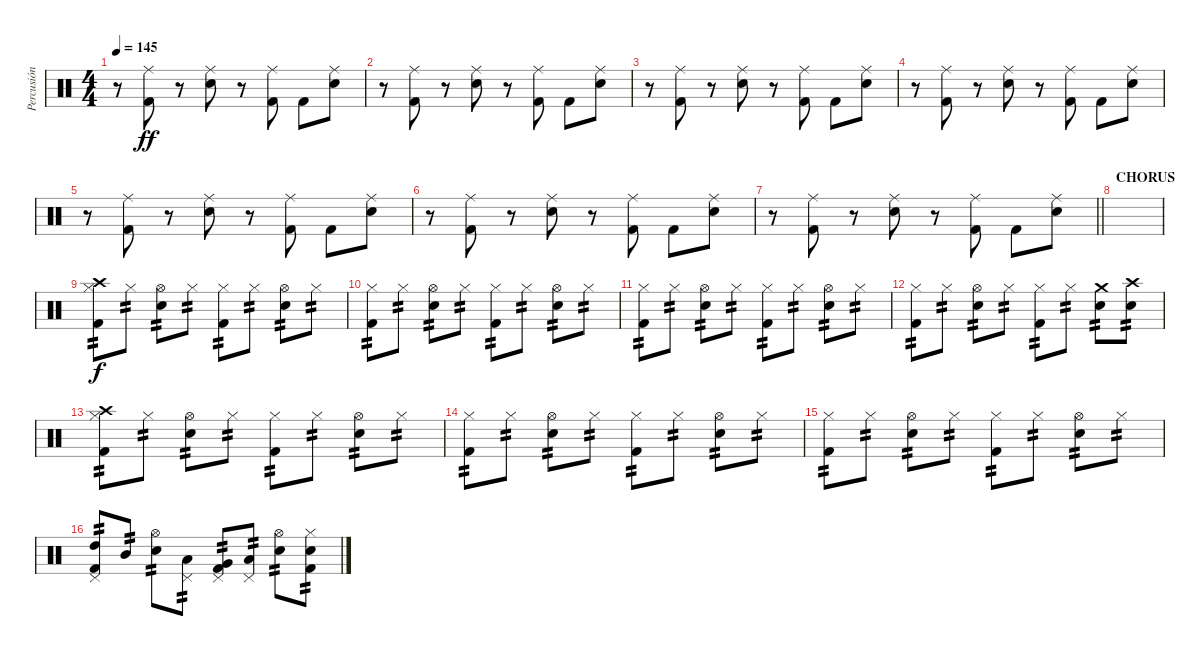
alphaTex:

\track ("Percusión" "Percusión") {instrument percussion}
\staff {score}
\articulation defaults
\ts (4 4)
\tempo 145
\clef neutral
\ks c
r.8{dy ff} ("Ride (middle)" "Kick (hit) 2").8 r.8 ("Ride (middle)" "Snare (hit) 2").8 r.8 ("Ride (middle)" "Kick (hit) 2").8 "Kick (hit) 2".8 ("Ride (middle)" "Snare (hit) 2").8 |
r.8 ("Ride (middle)" "Kick (hit) 2").8 r.8 ("Ride (middle)" "Snare (hit) 2").8 r.8 ("Ride (middle)" "Kick (hit) 2").8 "Kick (hit) 2".8 ("Ride (middle)" "Snare (hit) 2").8 |
r.8 ("Ride (middle)" "Kick (hit) 2").8 r.8 ("Ride (middle)" "Snare (hit) 2").8 r.8 ("Ride (middle)" "Kick (hit) 2").8 "Kick (hit) 2".8 ("Ride (middle)" "Snare (hit) 2").8 |
r.8 ("Ride (middle)" "Kick (hit) 2").8 r.8 ("Ride (middle)" "Snare (hit) 2").8 r.8 ("Ride (middle)" "Kick (hit) 2").8 "Kick (hit) 2".8 ("Ride (middle)" "Snare (hit) 2").8 |
r.8 ("Ride (middle)" "Kick (hit) 2").8 r.8 ("Ride (middle)" "Snare (hit) 2").8 r.8 ("Ride (middle)" "Kick (hit) 2").8 "Kick (hit) 2".8 ("Ride (middle)" "Snare (hit) 2").8 |
r.8 ("Ride (middle)" "Kick (hit) 2").8 r.8 ("Ride (middle)" "Snare (hit) 2").8 r.8 ("Ride (middle)" "Kick (hit) 2").8 "Kick (hit) 2".8 ("Ride (middle)" "Snare (hit) 2").8 |
\barLineRight lightlight
r.8 ("Ride (middle)" "Kick (hit) 2").8 r.8 ("Ride (middle)" "Snare (hit) 2").8 r.8 ("Ride (middle)" "Kick (hit) 2").8 "Kick (hit) 2".8 ("Ride (middle)" "Snare (hit) 2").8 |
\section ("" "CHORUS")
|
("Hi-Hat (closed)" "Kick (hit) 2" "Crash high (hit)").8{tp 2 dy f} "Hi-Hat (closed)".8{tp 2} ("Hi-Hat (open)" "Snare (hit) 2").8{tp 2} "Hi-Hat (closed)".8{tp 2} ("Hi-Hat (closed)" "Kick (hit) 2").8{tp 2} "Hi-Hat (closed)".8{tp 2} ("Hi-Hat (open)" "Snare (hit) 2").8{tp 2} "Hi-Hat (closed)".8{tp 2} |
("Hi-Hat (closed)" "Kick (hit) 2").8{tp 2} "Hi-Hat (closed)".8{tp 2} ("Hi-Hat (open)" "Snare (hit) 2").8{tp 2} "Hi-Hat (closed)".8{tp 2} ("Hi-Hat (closed)" "Kick (hit) 2").8{tp 2} "Hi-Hat (closed)".8{tp 2} ("Hi-Hat (open)" "Snare (hit) 2").8{tp 2} "Hi-Hat (closed)".8{tp 2} |
("Hi-Hat (closed)" "Kick (hit) 2").8{tp 2} "Hi-Hat (closed)".8{tp 2} ("Hi-Hat (open)" "Snare (hit) 2").8{tp 2} "Hi-Hat (closed)".8{tp 2} ("Hi-Hat (closed)" "Kick (hit) 2").8{tp 2} "Hi-Hat (closed)".8{tp 2} ("Hi-Hat (open)" "Snare (hit) 2").8{tp 2} "Hi-Hat (closed)".8{tp 2} |
("Hi-Hat (closed)" "Kick (hit) 2").8{tp 2} "Hi-Hat (closed)".8{tp 2} ("Hi-Hat (open)" "Snare (hit) 2").8{tp 2} "Hi-Hat (closed)".8{tp 2} ("Hi-Hat (closed)" "Kick (hit) 2").8{tp 2} "Hi-Hat (closed)".8{tp 2} ("Crash medium (hit)" "Snare (hit) 2").8{tp 2} ("Crash high (hit)" "Snare (hit) 2").8{tp 2} |
("Hi-Hat (closed)" "Kick (hit) 2" "Crash high (hit)").8{tp 2} "Hi-Hat (closed)".8{tp 2} ("Hi-Hat (open)" "Snare (hit) 2").8{tp 2} "Hi-Hat (closed)".8{tp 2} ("Hi-Hat (closed)" "Kick (hit) 2").8{tp 2} "Hi-Hat (closed)".8{tp 2} ("Hi-Hat (open)" "Snare (hit) 2").8{tp 2} "Hi-Hat (closed)".8{tp 2} |
("Hi-Hat (closed)" "Kick (hit) 2").8{tp 2} "Hi-Hat (closed)".8{tp 2} ("Hi-Hat (open)" "Snare (hit) 2").8{tp 2} "Hi-Hat (closed)".8{tp 2} ("Hi-Hat (closed)" "Kick (hit) 2").8{tp 2} "Hi-Hat (closed)".8{tp 2} ("Hi-Hat (open)" "Snare (hit) 2").8{tp 2} "Hi-Hat (closed)".8{tp 2} |
("Hi-Hat (closed)" "Kick (hit) 2").8{tp 2} "Hi-Hat (closed)".8{tp 2} ("Hi-Hat (open)" "Snare (hit) 2").8{tp 2} "Hi-Hat (closed)".8{tp 2} ("Hi-Hat (closed)" "Kick (hit) 2").8{tp 2} "Hi-Hat (closed)".8{tp 2} ("Hi-Hat (open)" "Snare (hit) 2").8{tp 2} "Hi-Hat (closed)".8{tp 2} |
("Pedal Hi-Hat (hit)" "High Tom (hit)" "Kick (hit) 2").8{tp 2} "Mid Tom (hit)".8{tp 2} ("Hi-Hat (open)" "Snare (hit) 2").8{tp 2} ("Pedal Hi-Hat (hit)" "Low Tom (hit)").8{tp 2} ("Pedal Hi-Hat (hit)" "Very Low Tom (hit)" "Kick (hit) 2").8{tp 2} ("Pedal Hi-Hat (hit)" "Low Floor Tom (hit)").8{tp 2} ("Hi-Hat (open)" "Snare (hit) 2").8{tp 2} ("Hi-Hat (closed)" "Snare (hit) 2" "Kick (hit) 2").8{tp 2}
